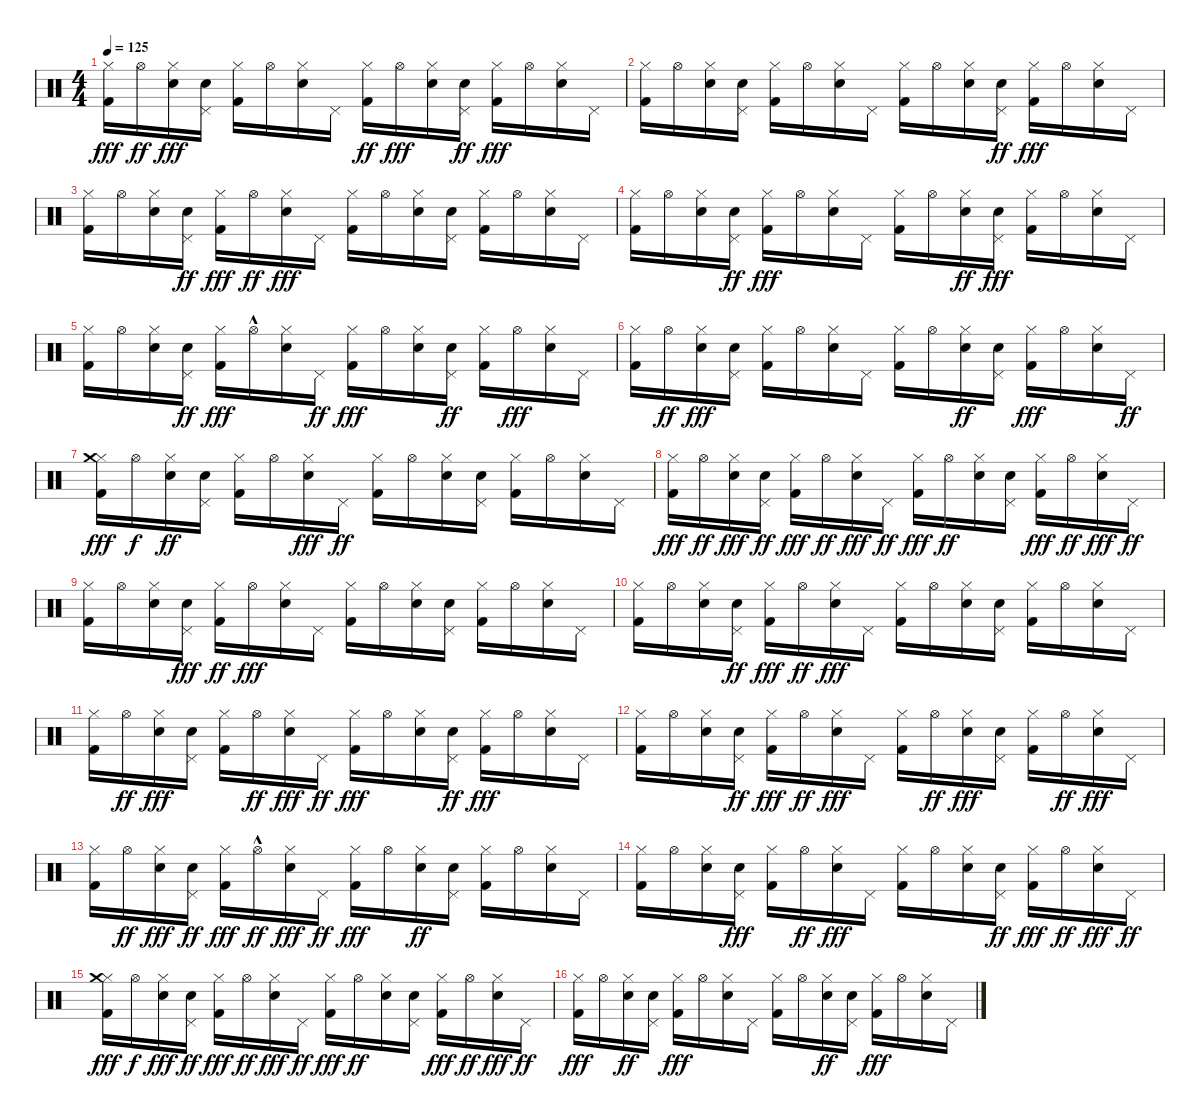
\track "" {instrument percussion}
\staff {score}
\articulation defaults
\ts (4 4)
\tempo 125
\clef neutral
\ks c
("Hi-Hat (closed)" "Kick (hit) 2").16{dy fff} "Hi-Hat (open)".16{dy ff} ("Hi-Hat (closed)" "Electric Snare (hit)").16{dy fff} ("Electric Snare (hit)" "Pedal Hi-Hat (hit)").16 ("Kick (hit) 2" "Hi-Hat (closed)").16 "Hi-Hat (open)".16 ("Electric Snare (hit)" "Hi-Hat (closed)").16 "Pedal Hi-Hat (hit)".16 ("Hi-Hat (closed)" "Kick (hit) 2").16{dy ff} "Hi-Hat (open)".16{dy fff} ("Hi-Hat (closed)" "Electric Snare (hit)").16 ("Pedal Hi-Hat (hit)" "Electric Snare (hit)").16{dy ff} ("Hi-Hat (closed)" "Kick (hit) 2").16{dy fff} "Hi-Hat (open)".16 ("Hi-Hat (closed)" "Electric Snare (hit)").16 "Pedal Hi-Hat (hit)".16 |
("Kick (hit) 2" "Hi-Hat (closed)").16 "Hi-Hat (open)".16 ("Electric Snare (hit)" "Hi-Hat (closed)").16 ("Electric Snare (hit)" "Pedal Hi-Hat (hit)").16 ("Hi-Hat (closed)" "Kick (hit) 2").16 "Hi-Hat (open)".16 ("Hi-Hat (closed)" "Electric Snare (hit)").16 "Pedal Hi-Hat (hit)".16 ("Hi-Hat (closed)" "Kick (hit) 2").16 "Hi-Hat (open)".16 ("Electric Snare (hit)" "Hi-Hat (closed)").16 ("Pedal Hi-Hat (hit)" "Electric Snare (hit)").16{dy ff} ("Hi-Hat (closed)" "Kick (hit) 2").16{dy fff} "Hi-Hat (open)".16 ("Electric Snare (hit)" "Hi-Hat (closed)").16 "Pedal Hi-Hat (hit)".16 |
("Hi-Hat (closed)" "Kick (hit) 2").16 "Hi-Hat (open)".16 ("Hi-Hat (closed)" "Electric Snare (hit)").16 ("Pedal Hi-Hat (hit)" "Electric Snare (hit)").16{dy ff} ("Hi-Hat (closed)" "Kick (hit) 2").16{dy fff} "Hi-Hat (open)".16{dy ff} ("Electric Snare (hit)" "Hi-Hat (closed)").16{dy fff} "Pedal Hi-Hat (hit)".16 ("Hi-Hat (closed)" "Kick (hit) 2").16 "Hi-Hat (open)".16 ("Hi-Hat (closed)" "Electric Snare (hit)").16 ("Pedal Hi-Hat (hit)" "Electric Snare (hit)").16 ("Hi-Hat (closed)" "Kick (hit) 2").16 "Hi-Hat (open)".16 ("Hi-Hat (closed)" "Electric Snare (hit)").16 "Pedal Hi-Hat (hit)".16 |
("Kick (hit) 2" "Hi-Hat (closed)").16 "Hi-Hat (open)".16 ("Electric Snare (hit)" "Hi-Hat (closed)").16 ("Pedal Hi-Hat (hit)" "Electric Snare (hit)").16{dy ff} ("Kick (hit) 2" "Hi-Hat (closed)").16{dy fff} "Hi-Hat (open)".16 ("Hi-Hat (closed)" "Electric Snare (hit)").16 "Pedal Hi-Hat (hit)".16 ("Kick (hit) 2" "Hi-Hat (closed)").16 "Hi-Hat (open)".16 ("Electric Snare (hit)" "Hi-Hat (closed)").16{dy ff} ("Electric Snare (hit)" "Pedal Hi-Hat (hit)").16{dy fff} ("Kick (hit) 2" "Hi-Hat (closed)").16 "Hi-Hat (open)".16 ("Hi-Hat (closed)" "Electric Snare (hit)").16 "Pedal Hi-Hat (hit)".16 |
("Hi-Hat (closed)" "Kick (hit) 2").16 "Hi-Hat (open)".16 ("Hi-Hat (closed)" "Electric Snare (hit)").16 ("Pedal Hi-Hat (hit)" "Electric Snare (hit)").16{dy ff} ("Kick (hit) 2" "Hi-Hat (closed)").16{dy fff} "Hi-Hat (open)"{hac}.16 ("Hi-Hat (closed)" "Electric Snare (hit)").16 "Pedal Hi-Hat (hit)".16{dy ff} ("Hi-Hat (closed)" "Kick (hit) 2").16{dy fff} "Hi-Hat (open)".16 ("Hi-Hat (closed)" "Electric Snare (hit)").16 ("Pedal Hi-Hat (hit)" "Electric Snare (hit)").16{dy ff} ("Kick (hit) 2" "Hi-Hat (closed)").16 "Hi-Hat (open)".16{dy fff} ("Hi-Hat (closed)" "Electric Snare (hit)").16 "Pedal Hi-Hat (hit)".16 |
("Hi-Hat (closed)" "Kick (hit) 2").16 "Hi-Hat (open)".16{dy ff} ("Hi-Hat (closed)" "Electric Snare (hit)").16{dy fff} ("Electric Snare (hit)" "Pedal Hi-Hat (hit)").16 ("Hi-Hat (closed)" "Kick (hit) 2").16 "Hi-Hat (open)".16 ("Hi-Hat (closed)" "Electric Snare (hit)").16 "Pedal Hi-Hat (hit)".16 ("Hi-Hat (closed)" "Kick (hit) 2").16 "Hi-Hat (open)".16 ("Electric Snare (hit)" "Hi-Hat (closed)").16{dy ff} ("Pedal Hi-Hat (hit)" "Electric Snare (hit)").16 ("Hi-Hat (closed)" "Kick (hit) 2").16{dy fff} "Hi-Hat (open)".16 ("Hi-Hat (closed)" "Electric Snare (hit)").16 "Pedal Hi-Hat (hit)".16{dy ff} |
("Hi-Hat (closed)" "Kick (hit) 2" "Crash medium (hit)").16{dy fff} "Hi-Hat (open)".16{dy f} ("Hi-Hat (closed)" "Electric Snare (hit)").16{dy ff} ("Pedal Hi-Hat (hit)" "Electric Snare (hit)").16 ("Kick (hit) 2" "Hi-Hat (closed)").16 "Hi-Hat (open)".16 ("Electric Snare (hit)" "Hi-Hat (closed)").16{dy fff} "Pedal Hi-Hat (hit)".16{dy ff} ("Kick (hit) 2" "Hi-Hat (closed)").16 "Hi-Hat (open)".16 ("Hi-Hat (closed)" "Electric Snare (hit)").16 ("Electric Snare (hit)" "Pedal Hi-Hat (hit)").16 ("Hi-Hat (closed)" "Kick (hit) 2").16 "Hi-Hat (open)".16 ("Hi-Hat (closed)" "Electric Snare (hit)").16 "Pedal Hi-Hat (hit)".16 |
("Hi-Hat (closed)" "Kick (hit) 2").16{dy fff} "Hi-Hat (open)".16{dy ff} ("Electric Snare (hit)" "Hi-Hat (closed)").16{dy fff} ("Pedal Hi-Hat (hit)" "Electric Snare (hit)").16{dy ff} ("Kick (hit) 2" "Hi-Hat (closed)").16{dy fff} "Hi-Hat (open)".16{dy ff} ("Hi-Hat (closed)" "Electric Snare (hit)").16{dy fff} "Pedal Hi-Hat (hit)".16{dy ff} ("Kick (hit) 2" "Hi-Hat (closed)").16{dy fff} "Hi-Hat (open)".16{dy ff} ("Hi-Hat (closed)" "Electric Snare (hit)").16 ("Pedal Hi-Hat (hit)" "Electric Snare (hit)").16 ("Kick (hit) 2" "Hi-Hat (closed)").16{dy fff} "Hi-Hat (open)".16{dy ff} ("Electric Snare (hit)" "Hi-Hat (closed)").16{dy fff} "Pedal Hi-Hat (hit)".16{dy ff} |
("Kick (hit) 2" "Hi-Hat (closed)").16 "Hi-Hat (open)".16 ("Electric Snare (hit)" "Hi-Hat (closed)").16 ("Electric Snare (hit)" "Pedal Hi-Hat (hit)").16{dy fff} ("Hi-Hat (closed)" "Kick (hit) 2").16{dy ff} "Hi-Hat (open)".16{dy fff} ("Electric Snare (hit)" "Hi-Hat (closed)").16 "Pedal Hi-Hat (hit)".16 ("Kick (hit) 2" "Hi-Hat (closed)").16 "Hi-Hat (open)".16 ("Electric Snare (hit)" "Hi-Hat (closed)").16 ("Pedal Hi-Hat (hit)" "Electric Snare (hit)").16 ("Hi-Hat (closed)" "Kick (hit) 2").16 "Hi-Hat (open)".16 ("Hi-Hat (closed)" "Electric Snare (hit)").16 "Pedal Hi-Hat (hit)".16 |
("Hi-Hat (closed)" "Kick (hit) 2").16 "Hi-Hat (open)".16 ("Electric Snare (hit)" "Hi-Hat (closed)").16 ("Pedal Hi-Hat (hit)" "Electric Snare (hit)").16{dy ff} ("Hi-Hat (closed)" "Kick (hit) 2").16{dy fff} "Hi-Hat (open)".16{dy ff} ("Electric Snare (hit)" "Hi-Hat (closed)").16{dy fff} "Pedal Hi-Hat (hit)".16 ("Kick (hit) 2" "Hi-Hat (closed)").16 "Hi-Hat (open)".16 ("Hi-Hat (closed)" "Electric Snare (hit)").16 ("Electric Snare (hit)" "Pedal Hi-Hat (hit)").16 ("Kick (hit) 2" "Hi-Hat (closed)").16 "Hi-Hat (open)".16 ("Electric Snare (hit)" "Hi-Hat (closed)").16 "Pedal Hi-Hat (hit)".16 |
("Kick (hit) 2" "Hi-Hat (closed)").16 "Hi-Hat (open)".16{dy ff} ("Electric Snare (hit)" "Hi-Hat (closed)").16{dy fff} ("Electric Snare (hit)" "Pedal Hi-Hat (hit)").16 ("Kick (hit) 2" "Hi-Hat (closed)").16 "Hi-Hat (open)".16{dy ff} ("Electric Snare (hit)" "Hi-Hat (closed)").16{dy fff} "Pedal Hi-Hat (hit)".16{dy ff} ("Hi-Hat (closed)" "Kick (hit) 2").16{dy fff} "Hi-Hat (open)".16 ("Hi-Hat (closed)" "Electric Snare (hit)").16 ("Pedal Hi-Hat (hit)" "Electric Snare (hit)").16{dy ff} ("Kick (hit) 2" "Hi-Hat (closed)").16{dy fff} "Hi-Hat (open)".16 ("Hi-Hat (closed)" "Electric Snare (hit)").16 "Pedal Hi-Hat (hit)".16 |
("Hi-Hat (closed)" "Kick (hit) 2").16 "Hi-Hat (open)".16 ("Hi-Hat (closed)" "Electric Snare (hit)").16 ("Pedal Hi-Hat (hit)" "Electric Snare (hit)").16{dy ff} ("Hi-Hat (closed)" "Kick (hit) 2").16{dy fff} "Hi-Hat (open)".16{dy ff} ("Electric Snare (hit)" "Hi-Hat (closed)").16{dy fff} "Pedal Hi-Hat (hit)".16 ("Kick (hit) 2" "Hi-Hat (closed)").16 "Hi-Hat (open)".16{dy ff} ("Hi-Hat (closed)" "Electric Snare (hit)").16{dy fff} ("Electric Snare (hit)" "Pedal Hi-Hat (hit)").16 ("Kick (hit) 2" "Hi-Hat (closed)").16 "Hi-Hat (open)".16{dy ff} ("Electric Snare (hit)" "Hi-Hat (closed)").16{dy fff} "Pedal Hi-Hat (hit)".16 |
("Hi-Hat (closed)" "Kick (hit) 2").16 "Hi-Hat (open)".16{dy ff} ("Electric Snare (hit)" "Hi-Hat (closed)").16{dy fff} ("Pedal Hi-Hat (hit)" "Electric Snare (hit)").16{dy ff} ("Kick (hit) 2" "Hi-Hat (closed)").16{dy fff} "Hi-Hat (open)"{hac}.16{dy ff} ("Hi-Hat (closed)" "Electric Snare (hit)").16{dy fff} "Pedal Hi-Hat (hit)".16{dy ff} ("Hi-Hat (closed)" "Kick (hit) 2").16{dy fff} "Hi-Hat (open)".16 ("Electric Snare (hit)" "Hi-Hat (closed)").16{dy ff} ("Pedal Hi-Hat (hit)" "Electric Snare (hit)").16 ("Kick (hit) 2" "Hi-Hat (closed)").16 "Hi-Hat (open)".16 ("Electric Snare (hit)" "Hi-Hat (closed)").16 "Pedal Hi-Hat (hit)".16 |
("Kick (hit) 2" "Hi-Hat (closed)").16 "Hi-Hat (open)".16 ("Electric Snare (hit)" "Hi-Hat (closed)").16 ("Electric Snare (hit)" "Pedal Hi-Hat (hit)").16{dy fff} ("Hi-Hat (closed)" "Kick (hit) 2").16 "Hi-Hat (open)".16{dy ff} ("Hi-Hat (closed)" "Electric Snare (hit)").16{dy fff} "Pedal Hi-Hat (hit)".16 ("Kick (hit) 2" "Hi-Hat (closed)").16 "Hi-Hat (open)".16 ("Hi-Hat (closed)" "Electric Snare (hit)").16 ("Pedal Hi-Hat (hit)" "Electric Snare (hit)").16{dy ff} ("Kick (hit) 2" "Hi-Hat (closed)").16{dy fff} "Hi-Hat (open)".16{dy ff} ("Electric Snare (hit)" "Hi-Hat (closed)").16{dy fff} "Pedal Hi-Hat (hit)".16{dy ff} |
("Kick (hit) 2" "Hi-Hat (closed)" "Crash medium (hit)").16{dy fff} "Hi-Hat (open)".16{dy f} ("Electric Snare (hit)" "Hi-Hat (closed)").16{dy fff} ("Electric Snare (hit)" "Pedal Hi-Hat (hit)").16{dy ff} ("Hi-Hat (closed)" "Kick (hit) 2").16{dy fff} "Hi-Hat (open)".16{dy ff} ("Electric Snare (hit)" "Hi-Hat (closed)").16{dy fff} "Pedal Hi-Hat (hit)".16{dy ff} ("Kick (hit) 2" "Hi-Hat (closed)").16{dy fff} "Hi-Hat (open)".16{dy ff} ("Hi-Hat (closed)" "Electric Snare (hit)").16 ("Pedal Hi-Hat (hit)" "Electric Snare (hit)").16 ("Hi-Hat (closed)" "Kick (hit) 2").16{dy fff} "Hi-Hat (open)".16{dy ff} ("Electric Snare (hit)" "Hi-Hat (closed)").16{dy fff} "Pedal Hi-Hat (hit)".16{dy ff} |
("Kick (hit) 2" "Hi-Hat (closed)").16{dy fff} "Hi-Hat (open)".16 ("Hi-Hat (closed)" "Electric Snare (hit)").16{dy ff} ("Electric Snare (hit)" "Pedal Hi-Hat (hit)").16 ("Kick (hit) 2" "Hi-Hat (closed)").16{dy fff} "Hi-Hat (open)".16 ("Hi-Hat (closed)" "Electric Snare (hit)").16 "Pedal Hi-Hat (hit)".16 ("Hi-Hat (closed)" "Kick (hit) 2").16 "Hi-Hat (open)".16 ("Hi-Hat (closed)" "Electric Snare (hit)").16{dy ff} ("Electric Snare (hit)" "Pedal Hi-Hat (hit)").16 ("Kick (hit) 2" "Hi-Hat (closed)").16{dy fff} "Hi-Hat (open)".16 ("Hi-Hat (closed)" "Electric Snare (hit)").16 "Pedal Hi-Hat (hit)".16
